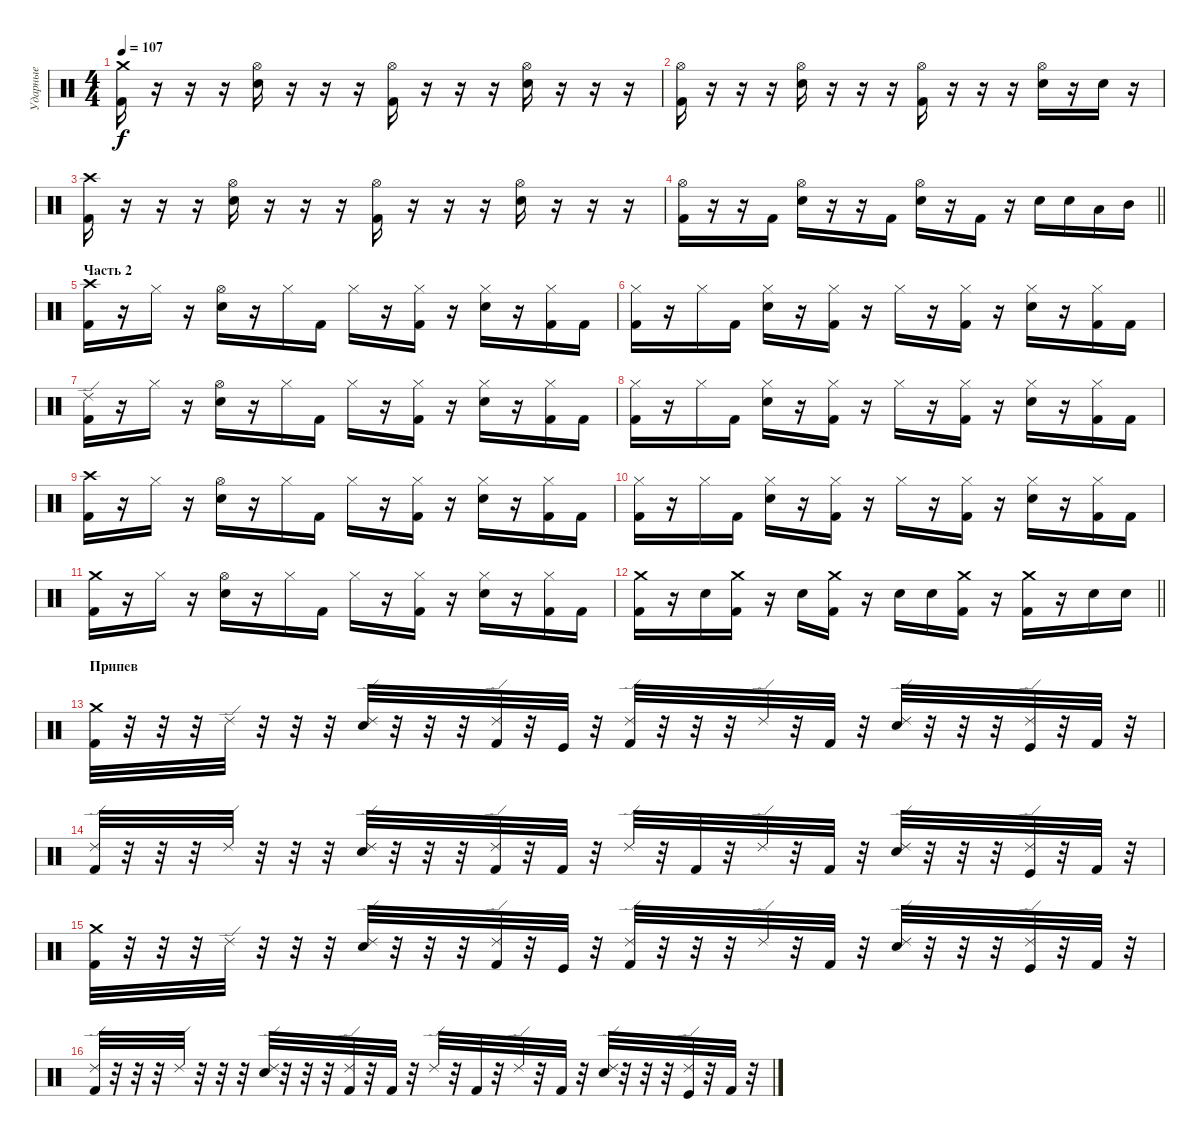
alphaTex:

\track ("Ударные" "Ударные") {instrument percussion}
\staff {score}
\articulation defaults
\ts (4 4)
\tempo 107
\clef neutral
\ks c
("Crash medium (hit)" "Kick (hit) 2").16{dy f} r.16 r.16 r.16 ("Hi-Hat (open)" "Electric Snare (hit)").16 r.16 r.16 r.16 ("Hi-Hat (open)" "Kick (hit) 2").16 r.16 r.16 r.16 ("Hi-Hat (open)" "Electric Snare (hit)").16 r.16 r.16 r.16 |
("Hi-Hat (open)" "Kick (hit) 2").16 r.16 r.16 r.16 ("Hi-Hat (open)" "Electric Snare (hit)").16 r.16 r.16 r.16 ("Hi-Hat (open)" "Kick (hit) 2").16 r.16 r.16 r.16 ("Hi-Hat (open)" "Electric Snare (hit)").16 r.16 "Electric Snare (hit)".16 r.16 |
("Crash high (hit)" "Kick (hit) 2").16 r.16 r.16 r.16 ("Hi-Hat (open)" "Electric Snare (hit)").16 r.16 r.16 r.16 ("Hi-Hat (open)" "Kick (hit) 2").16 r.16 r.16 r.16 ("Hi-Hat (open)" "Electric Snare (hit)").16 r.16 r.16 r.16 |
\barLineRight lightlight
("Hi-Hat (open)" "Kick (hit) 2").16 r.16 r.16 "Kick (hit) 2".16 ("Hi-Hat (open)" "Electric Snare (hit)").16 r.16 r.16 "Kick (hit) 2".16 ("Hi-Hat (open)" "Electric Snare (hit)").16 r.16 "Kick (hit) 2".16 r.16 "Electric Snare (hit)".16 "Electric Snare (hit)".16 "Low Tom (hit)".16 "Mid Tom (hit)".16 |
\section ("" "Часть 2")
("Crash high (hit)" "Kick (hit) 2").16 r.16 "Hi-Hat (closed)".16 r.16 ("Hi-Hat (open)" "Electric Snare (hit)").16 r.16 "Hi-Hat (closed)".16 "Kick (hit) 2".16 "Hi-Hat (closed)".16 r.16 ("Hi-Hat (closed)" "Kick (hit) 2").16 r.16 ("Hi-Hat (closed)" "Electric Snare (hit)").16 r.16 ("Hi-Hat (closed)" "Kick (hit) 2").16 "Kick (hit) 2".16 |
("Hi-Hat (closed)" "Kick (hit) 2").16 r.16 "Hi-Hat (closed)".16 "Kick (hit) 2".16 ("Hi-Hat (closed)" "Electric Snare (hit)").16 r.16 ("Hi-Hat (closed)" "Kick (hit) 2").16 r.16 "Hi-Hat (closed)".16 r.16 ("Hi-Hat (closed)" "Kick (hit) 2").16 r.16 ("Hi-Hat (closed)" "Electric Snare (hit)").16 r.16 ("Hi-Hat (closed)" "Kick (hit) 2").16 "Kick (hit) 2".16 |
("Ride (edge) 2" "Kick (hit) 2").16 r.16 "Hi-Hat (closed)".16 r.16 ("Hi-Hat (open)" "Electric Snare (hit)").16 r.16 "Hi-Hat (closed)".16 "Kick (hit) 2".16 "Hi-Hat (closed)".16 r.16 ("Hi-Hat (closed)" "Kick (hit) 2").16 r.16 ("Hi-Hat (closed)" "Electric Snare (hit)").16 r.16 ("Hi-Hat (closed)" "Kick (hit) 2").16 "Kick (hit) 2".16 |
("Hi-Hat (closed)" "Kick (hit) 2").16 r.16 "Hi-Hat (closed)".16 "Kick (hit) 2".16 ("Hi-Hat (closed)" "Electric Snare (hit)").16 r.16 ("Hi-Hat (closed)" "Kick (hit) 2").16 r.16 "Hi-Hat (closed)".16 r.16 ("Hi-Hat (closed)" "Kick (hit) 2").16 r.16 ("Hi-Hat (closed)" "Electric Snare (hit)").16 r.16 ("Hi-Hat (closed)" "Kick (hit) 2").16 "Kick (hit) 2".16 |
("Crash high (hit)" "Kick (hit) 2").16 r.16 "Hi-Hat (closed)".16 r.16 ("Hi-Hat (open)" "Electric Snare (hit)").16 r.16 "Hi-Hat (closed)".16 "Kick (hit) 2".16 "Hi-Hat (closed)".16 r.16 ("Hi-Hat (closed)" "Kick (hit) 2").16 r.16 ("Hi-Hat (closed)" "Electric Snare (hit)").16 r.16 ("Hi-Hat (closed)" "Kick (hit) 2").16 "Kick (hit) 2".16 |
("Hi-Hat (closed)" "Kick (hit) 2").16 r.16 "Hi-Hat (closed)".16 "Kick (hit) 2".16 ("Hi-Hat (closed)" "Electric Snare (hit)").16 r.16 ("Hi-Hat (closed)" "Kick (hit) 2").16 r.16 "Hi-Hat (closed)".16 r.16 ("Hi-Hat (closed)" "Kick (hit) 2").16 r.16 ("Hi-Hat (closed)" "Electric Snare (hit)").16 r.16 ("Hi-Hat (closed)" "Kick (hit) 2").16 "Kick (hit) 2".16 |
("Crash medium (hit)" "Kick (hit) 2").16 r.16 "Hi-Hat (closed)".16 r.16 ("Hi-Hat (open)" "Electric Snare (hit)").16 r.16 "Hi-Hat (closed)".16 "Kick (hit) 2".16 "Hi-Hat (closed)".16 r.16 ("Hi-Hat (closed)" "Kick (hit) 2").16 r.16 ("Hi-Hat (closed)" "Electric Snare (hit)").16 r.16 ("Hi-Hat (closed)" "Kick (hit) 2").16 "Kick (hit) 2".16 |
\barLineRight lightlight
("Crash medium (hit)" "Kick (hit) 2").16 r.16 "Electric Snare (hit)".16 ("Crash medium (hit)" "Kick (hit) 2").16 r.16 "Electric Snare (hit)".16 ("Crash medium (hit)" "Kick (hit) 2").16 r.16 "Electric Snare (hit)".16 "Electric Snare (hit)".16 ("Crash medium (hit)" "Kick (hit) 2").16 r.16 ("Crash medium (hit)" "Kick (hit) 2").16 r.16 "Electric Snare (hit)".16 "Electric Snare (hit)".16 |
\section ("" "Припев")
("Crash medium (hit)" "Kick (hit) 2").32 r.32 r.32 r.32 "Ride (edge) 2".32 r.32 r.32 r.32 ("Ride (edge) 2" "Electric Snare (hit)").32 r.32 r.32 r.32 ("Ride (edge) 2" "Kick (hit) 2").32 r.32 "Kick (hit)".32 r.32 ("Ride (edge) 2" "Kick (hit) 2").32 r.32 r.32 r.32 "Ride (edge) 2".32 r.32 "Kick (hit) 2".32 r.32 ("Ride (edge) 2" "Electric Snare (hit)").32 r.32 r.32 r.32 ("Ride (edge) 2" "Kick (hit)").32 r.32 "Kick (hit) 2".32 r.32 |
("Ride (edge) 2" "Kick (hit) 2").32 r.32 r.32 r.32 "Ride (edge) 2".32 r.32 r.32 r.32 ("Ride (edge) 2" "Electric Snare (hit)").32 r.32 r.32 r.32 ("Ride (edge) 2" "Kick (hit) 2").32 r.32 "Kick (hit) 2".32 r.32 "Ride (edge) 2".32 r.32 "Kick (hit) 2".32 r.32 "Ride (edge) 2".32 r.32 "Kick (hit) 2".32 r.32 ("Ride (edge) 2" "Electric Snare (hit)").32 r.32 r.32 r.32 ("Ride (edge) 2" "Kick (hit)").32 r.32 "Kick (hit) 2".32 r.32 |
("Crash medium (hit)" "Kick (hit) 2").32 r.32 r.32 r.32 "Ride (edge) 2".32 r.32 r.32 r.32 ("Ride (edge) 2" "Electric Snare (hit)").32 r.32 r.32 r.32 ("Ride (edge) 2" "Kick (hit) 2").32 r.32 "Kick (hit)".32 r.32 ("Ride (edge) 2" "Kick (hit) 2").32 r.32 r.32 r.32 "Ride (edge) 2".32 r.32 "Kick (hit) 2".32 r.32 ("Ride (edge) 2" "Electric Snare (hit)").32 r.32 r.32 r.32 ("Ride (edge) 2" "Kick (hit)").32 r.32 "Kick (hit) 2".32 r.32 |
("Ride (edge) 2" "Kick (hit) 2").32 r.32 r.32 r.32 "Ride (edge) 2".32 r.32 r.32 r.32 ("Ride (edge) 2" "Electric Snare (hit)").32 r.32 r.32 r.32 ("Ride (edge) 2" "Kick (hit) 2").32 r.32 "Kick (hit) 2".32 r.32 "Ride (edge) 2".32 r.32 "Kick (hit) 2".32 r.32 "Ride (edge) 2".32 r.32 "Kick (hit) 2".32 r.32 ("Ride (edge) 2" "Electric Snare (hit)").32 r.32 r.32 r.32 ("Ride (edge) 2" "Kick (hit)").32 r.32 "Kick (hit) 2".32 r.32
